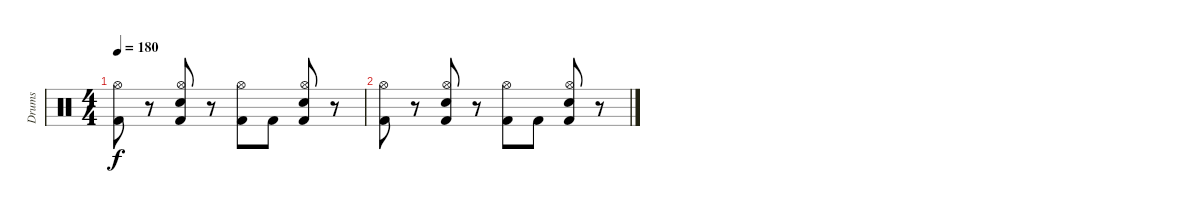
\track ("Drums" "Drums") {instrument percussion}
\staff {score}
\articulation defaults
\ts (4 4)
\tempo 180
\clef neutral
\ks c
("Kick (hit) 2" "Hi-Hat (open)").8{dy f} r.8 ("Hi-Hat (open)" "Kick (hit) 2" "Snare (hit) 2").8 r.8 ("Hi-Hat (open)" "Kick (hit) 2").8 "Kick (hit) 2".8 ("Hi-Hat (open)" "Kick (hit) 2" "Snare (hit) 2").8 r.8 |
("Kick (hit) 2" "Hi-Hat (open)").8 r.8 ("Hi-Hat (open)" "Kick (hit) 2" "Snare (hit) 2").8 r.8 ("Hi-Hat (open)" "Kick (hit) 2").8 "Kick (hit) 2".8 ("Hi-Hat (open)" "Kick (hit) 2" "Snare (hit) 2").8 r.8
